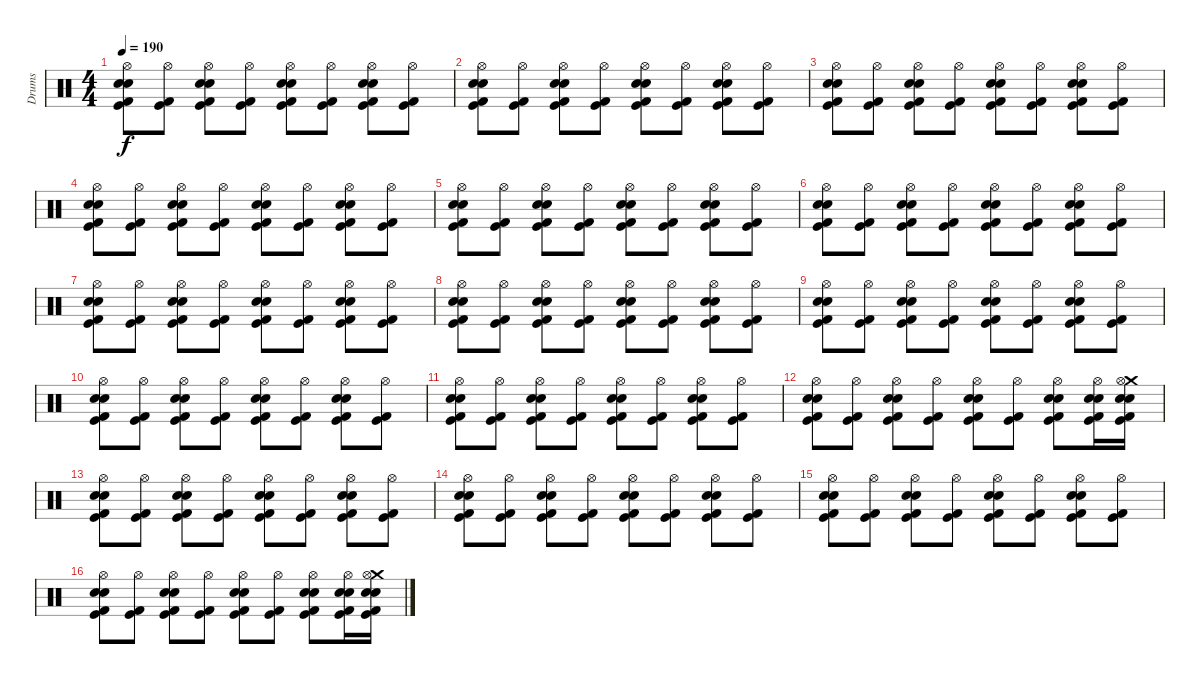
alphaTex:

\track ("Drums" "Drums") {instrument percussion}
\staff {score}
\articulation defaults
\ts (4 4)
\tempo 190
\clef neutral
\ks c
("Hi-Hat (open)" "Kick (hit) 2" "Snare (hit) 2" "Electric Snare (hit)" "Kick (hit)").8{dy f} ("Hi-Hat (open)" "Kick (hit) 2" "Kick (hit)").8 ("Snare (hit) 2" "Hi-Hat (open)" "Electric Snare (hit)" "Kick (hit)" "Kick (hit) 2").8 ("Hi-Hat (open)" "Kick (hit) 2" "Kick (hit)").8 ("Snare (hit) 2" "Hi-Hat (open)" "Electric Snare (hit)" "Kick (hit)" "Kick (hit) 2").8 ("Hi-Hat (open)" "Kick (hit) 2" "Kick (hit)").8 ("Snare (hit) 2" "Hi-Hat (open)" "Electric Snare (hit)" "Kick (hit)" "Kick (hit) 2").8 ("Hi-Hat (open)" "Kick (hit) 2" "Kick (hit)").8 |
("Hi-Hat (open)" "Kick (hit) 2" "Snare (hit) 2" "Electric Snare (hit)" "Kick (hit)").8 ("Hi-Hat (open)" "Kick (hit) 2" "Kick (hit)").8 ("Snare (hit) 2" "Hi-Hat (open)" "Electric Snare (hit)" "Kick (hit)" "Kick (hit) 2").8 ("Hi-Hat (open)" "Kick (hit) 2" "Kick (hit)").8 ("Snare (hit) 2" "Hi-Hat (open)" "Electric Snare (hit)" "Kick (hit)" "Kick (hit) 2").8 ("Hi-Hat (open)" "Kick (hit) 2" "Kick (hit)").8 ("Snare (hit) 2" "Hi-Hat (open)" "Electric Snare (hit)" "Kick (hit)" "Kick (hit) 2").8 ("Hi-Hat (open)" "Kick (hit) 2" "Kick (hit)").8 |
("Hi-Hat (open)" "Kick (hit) 2" "Snare (hit) 2" "Electric Snare (hit)" "Kick (hit)").8 ("Hi-Hat (open)" "Kick (hit) 2" "Kick (hit)").8 ("Snare (hit) 2" "Hi-Hat (open)" "Electric Snare (hit)" "Kick (hit)" "Kick (hit) 2").8 ("Hi-Hat (open)" "Kick (hit) 2" "Kick (hit)").8 ("Snare (hit) 2" "Hi-Hat (open)" "Electric Snare (hit)" "Kick (hit)" "Kick (hit) 2").8 ("Hi-Hat (open)" "Kick (hit) 2" "Kick (hit)").8 ("Snare (hit) 2" "Hi-Hat (open)" "Electric Snare (hit)" "Kick (hit)" "Kick (hit) 2").8 ("Hi-Hat (open)" "Kick (hit) 2" "Kick (hit)").8 |
("Hi-Hat (open)" "Kick (hit) 2" "Snare (hit) 2" "Electric Snare (hit)" "Kick (hit)").8 ("Hi-Hat (open)" "Kick (hit) 2" "Kick (hit)").8 ("Snare (hit) 2" "Hi-Hat (open)" "Electric Snare (hit)" "Kick (hit)" "Kick (hit) 2").8 ("Hi-Hat (open)" "Kick (hit) 2" "Kick (hit)").8 ("Snare (hit) 2" "Hi-Hat (open)" "Electric Snare (hit)" "Kick (hit)" "Kick (hit) 2").8 ("Hi-Hat (open)" "Kick (hit) 2" "Kick (hit)").8 ("Snare (hit) 2" "Hi-Hat (open)" "Electric Snare (hit)" "Kick (hit)" "Kick (hit) 2").8 ("Hi-Hat (open)" "Kick (hit) 2" "Kick (hit)").8 |
("Hi-Hat (open)" "Kick (hit) 2" "Snare (hit) 2" "Electric Snare (hit)" "Kick (hit)").8 ("Hi-Hat (open)" "Kick (hit) 2" "Kick (hit)").8 ("Snare (hit) 2" "Hi-Hat (open)" "Electric Snare (hit)" "Kick (hit)" "Kick (hit) 2").8 ("Hi-Hat (open)" "Kick (hit) 2" "Kick (hit)").8 ("Snare (hit) 2" "Hi-Hat (open)" "Electric Snare (hit)" "Kick (hit)" "Kick (hit) 2").8 ("Hi-Hat (open)" "Kick (hit) 2" "Kick (hit)").8 ("Snare (hit) 2" "Hi-Hat (open)" "Electric Snare (hit)" "Kick (hit)" "Kick (hit) 2").8 ("Hi-Hat (open)" "Kick (hit) 2" "Kick (hit)").8 |
("Hi-Hat (open)" "Kick (hit) 2" "Snare (hit) 2" "Electric Snare (hit)" "Kick (hit)").8 ("Hi-Hat (open)" "Kick (hit) 2" "Kick (hit)").8 ("Snare (hit) 2" "Hi-Hat (open)" "Electric Snare (hit)" "Kick (hit)" "Kick (hit) 2").8 ("Hi-Hat (open)" "Kick (hit) 2" "Kick (hit)").8 ("Snare (hit) 2" "Hi-Hat (open)" "Electric Snare (hit)" "Kick (hit)" "Kick (hit) 2").8 ("Hi-Hat (open)" "Kick (hit) 2" "Kick (hit)").8 ("Snare (hit) 2" "Hi-Hat (open)" "Electric Snare (hit)" "Kick (hit)" "Kick (hit) 2").8 ("Hi-Hat (open)" "Kick (hit) 2" "Kick (hit)").8 |
("Hi-Hat (open)" "Kick (hit) 2" "Snare (hit) 2" "Electric Snare (hit)" "Kick (hit)").8 ("Hi-Hat (open)" "Kick (hit) 2" "Kick (hit)").8 ("Snare (hit) 2" "Hi-Hat (open)" "Electric Snare (hit)" "Kick (hit)" "Kick (hit) 2").8 ("Hi-Hat (open)" "Kick (hit) 2" "Kick (hit)").8 ("Snare (hit) 2" "Hi-Hat (open)" "Electric Snare (hit)" "Kick (hit)" "Kick (hit) 2").8 ("Hi-Hat (open)" "Kick (hit) 2" "Kick (hit)").8 ("Snare (hit) 2" "Hi-Hat (open)" "Electric Snare (hit)" "Kick (hit)" "Kick (hit) 2").8 ("Hi-Hat (open)" "Kick (hit) 2" "Kick (hit)").8 |
("Hi-Hat (open)" "Kick (hit) 2" "Snare (hit) 2" "Electric Snare (hit)" "Kick (hit)").8 ("Hi-Hat (open)" "Kick (hit) 2" "Kick (hit)").8 ("Snare (hit) 2" "Hi-Hat (open)" "Electric Snare (hit)" "Kick (hit)" "Kick (hit) 2").8 ("Hi-Hat (open)" "Kick (hit) 2" "Kick (hit)").8 ("Snare (hit) 2" "Hi-Hat (open)" "Electric Snare (hit)" "Kick (hit)" "Kick (hit) 2").8 ("Hi-Hat (open)" "Kick (hit) 2" "Kick (hit)").8 ("Snare (hit) 2" "Hi-Hat (open)" "Electric Snare (hit)" "Kick (hit)" "Kick (hit) 2").8 ("Hi-Hat (open)" "Kick (hit) 2" "Kick (hit)").8 |
("Hi-Hat (open)" "Kick (hit) 2" "Snare (hit) 2" "Electric Snare (hit)" "Kick (hit)").8 ("Hi-Hat (open)" "Kick (hit) 2" "Kick (hit)").8 ("Snare (hit) 2" "Hi-Hat (open)" "Electric Snare (hit)" "Kick (hit)" "Kick (hit) 2").8 ("Hi-Hat (open)" "Kick (hit) 2" "Kick (hit)").8 ("Snare (hit) 2" "Hi-Hat (open)" "Electric Snare (hit)" "Kick (hit)" "Kick (hit) 2").8 ("Hi-Hat (open)" "Kick (hit) 2" "Kick (hit)").8 ("Snare (hit) 2" "Hi-Hat (open)" "Electric Snare (hit)" "Kick (hit)" "Kick (hit) 2").8 ("Hi-Hat (open)" "Kick (hit) 2" "Kick (hit)").8 |
("Hi-Hat (open)" "Kick (hit) 2" "Snare (hit) 2" "Electric Snare (hit)" "Kick (hit)").8 ("Hi-Hat (open)" "Kick (hit) 2" "Kick (hit)").8 ("Snare (hit) 2" "Hi-Hat (open)" "Electric Snare (hit)" "Kick (hit)" "Kick (hit) 2").8 ("Hi-Hat (open)" "Kick (hit) 2" "Kick (hit)").8 ("Snare (hit) 2" "Hi-Hat (open)" "Electric Snare (hit)" "Kick (hit)" "Kick (hit) 2").8 ("Hi-Hat (open)" "Kick (hit) 2" "Kick (hit)").8 ("Snare (hit) 2" "Hi-Hat (open)" "Electric Snare (hit)" "Kick (hit)" "Kick (hit) 2").8 ("Hi-Hat (open)" "Kick (hit) 2" "Kick (hit)").8 |
("Hi-Hat (open)" "Kick (hit) 2" "Snare (hit) 2" "Electric Snare (hit)" "Kick (hit)").8 ("Hi-Hat (open)" "Kick (hit) 2" "Kick (hit)").8 ("Snare (hit) 2" "Hi-Hat (open)" "Electric Snare (hit)" "Kick (hit)" "Kick (hit) 2").8 ("Hi-Hat (open)" "Kick (hit) 2" "Kick (hit)").8 ("Snare (hit) 2" "Hi-Hat (open)" "Electric Snare (hit)" "Kick (hit)" "Kick (hit) 2").8 ("Hi-Hat (open)" "Kick (hit) 2" "Kick (hit)").8 ("Snare (hit) 2" "Hi-Hat (open)" "Electric Snare (hit)" "Kick (hit)" "Kick (hit) 2").8 ("Hi-Hat (open)" "Kick (hit) 2" "Kick (hit)").8 |
("Hi-Hat (open)" "Kick (hit) 2" "Snare (hit) 2" "Electric Snare (hit)" "Kick (hit)").8 ("Hi-Hat (open)" "Kick (hit) 2" "Kick (hit)").8 ("Snare (hit) 2" "Hi-Hat (open)" "Electric Snare (hit)" "Kick (hit)" "Kick (hit) 2").8 ("Hi-Hat (open)" "Kick (hit) 2" "Kick (hit)").8 ("Snare (hit) 2" "Hi-Hat (open)" "Electric Snare (hit)" "Kick (hit)" "Kick (hit) 2").8 ("Hi-Hat (open)" "Kick (hit) 2" "Kick (hit)").8 ("Snare (hit) 2" "Hi-Hat (open)" "Electric Snare (hit)" "Kick (hit)" "Kick (hit) 2").8 ("Electric Snare (hit)" "Hi-Hat (open)" "Kick (hit) 2" "Kick (hit)" "Snare (hit) 2").16 ("Crash medium (hit)" "Electric Snare (hit)" "Hi-Hat (open)" "Kick (hit) 2" "Kick (hit)" "Snare (hit) 2").16 |
("Hi-Hat (open)" "Kick (hit) 2" "Snare (hit) 2" "Electric Snare (hit)" "Kick (hit)").8 ("Hi-Hat (open)" "Kick (hit) 2" "Kick (hit)").8 ("Snare (hit) 2" "Hi-Hat (open)" "Electric Snare (hit)" "Kick (hit)" "Kick (hit) 2").8 ("Hi-Hat (open)" "Kick (hit) 2" "Kick (hit)").8 ("Snare (hit) 2" "Hi-Hat (open)" "Electric Snare (hit)" "Kick (hit)" "Kick (hit) 2").8 ("Hi-Hat (open)" "Kick (hit) 2" "Kick (hit)").8 ("Snare (hit) 2" "Hi-Hat (open)" "Electric Snare (hit)" "Kick (hit)" "Kick (hit) 2").8 ("Hi-Hat (open)" "Kick (hit) 2" "Kick (hit)").8 |
("Hi-Hat (open)" "Kick (hit) 2" "Snare (hit) 2" "Electric Snare (hit)" "Kick (hit)").8 ("Hi-Hat (open)" "Kick (hit) 2" "Kick (hit)").8 ("Snare (hit) 2" "Hi-Hat (open)" "Electric Snare (hit)" "Kick (hit)" "Kick (hit) 2").8 ("Hi-Hat (open)" "Kick (hit) 2" "Kick (hit)").8 ("Snare (hit) 2" "Hi-Hat (open)" "Electric Snare (hit)" "Kick (hit)" "Kick (hit) 2").8 ("Hi-Hat (open)" "Kick (hit) 2" "Kick (hit)").8 ("Snare (hit) 2" "Hi-Hat (open)" "Electric Snare (hit)" "Kick (hit)" "Kick (hit) 2").8 ("Hi-Hat (open)" "Kick (hit) 2" "Kick (hit)").8 |
("Hi-Hat (open)" "Kick (hit) 2" "Snare (hit) 2" "Electric Snare (hit)" "Kick (hit)").8 ("Hi-Hat (open)" "Kick (hit) 2" "Kick (hit)").8 ("Snare (hit) 2" "Hi-Hat (open)" "Electric Snare (hit)" "Kick (hit)" "Kick (hit) 2").8 ("Hi-Hat (open)" "Kick (hit) 2" "Kick (hit)").8 ("Snare (hit) 2" "Hi-Hat (open)" "Electric Snare (hit)" "Kick (hit)" "Kick (hit) 2").8 ("Hi-Hat (open)" "Kick (hit) 2" "Kick (hit)").8 ("Snare (hit) 2" "Hi-Hat (open)" "Electric Snare (hit)" "Kick (hit)" "Kick (hit) 2").8 ("Hi-Hat (open)" "Kick (hit) 2" "Kick (hit)").8 |
("Hi-Hat (open)" "Kick (hit) 2" "Snare (hit) 2" "Electric Snare (hit)" "Kick (hit)").8 ("Hi-Hat (open)" "Kick (hit) 2" "Kick (hit)").8 ("Snare (hit) 2" "Hi-Hat (open)" "Electric Snare (hit)" "Kick (hit)" "Kick (hit) 2").8 ("Hi-Hat (open)" "Kick (hit) 2" "Kick (hit)").8 ("Snare (hit) 2" "Hi-Hat (open)" "Electric Snare (hit)" "Kick (hit)" "Kick (hit) 2").8 ("Hi-Hat (open)" "Kick (hit) 2" "Kick (hit)").8 ("Snare (hit) 2" "Hi-Hat (open)" "Electric Snare (hit)" "Kick (hit)" "Kick (hit) 2").8 ("Electric Snare (hit)" "Hi-Hat (open)" "Kick (hit) 2" "Kick (hit)" "Snare (hit) 2").16 ("Crash medium (hit)" "Electric Snare (hit)" "Hi-Hat (open)" "Kick (hit) 2" "Kick (hit)" "Snare (hit) 2").16
